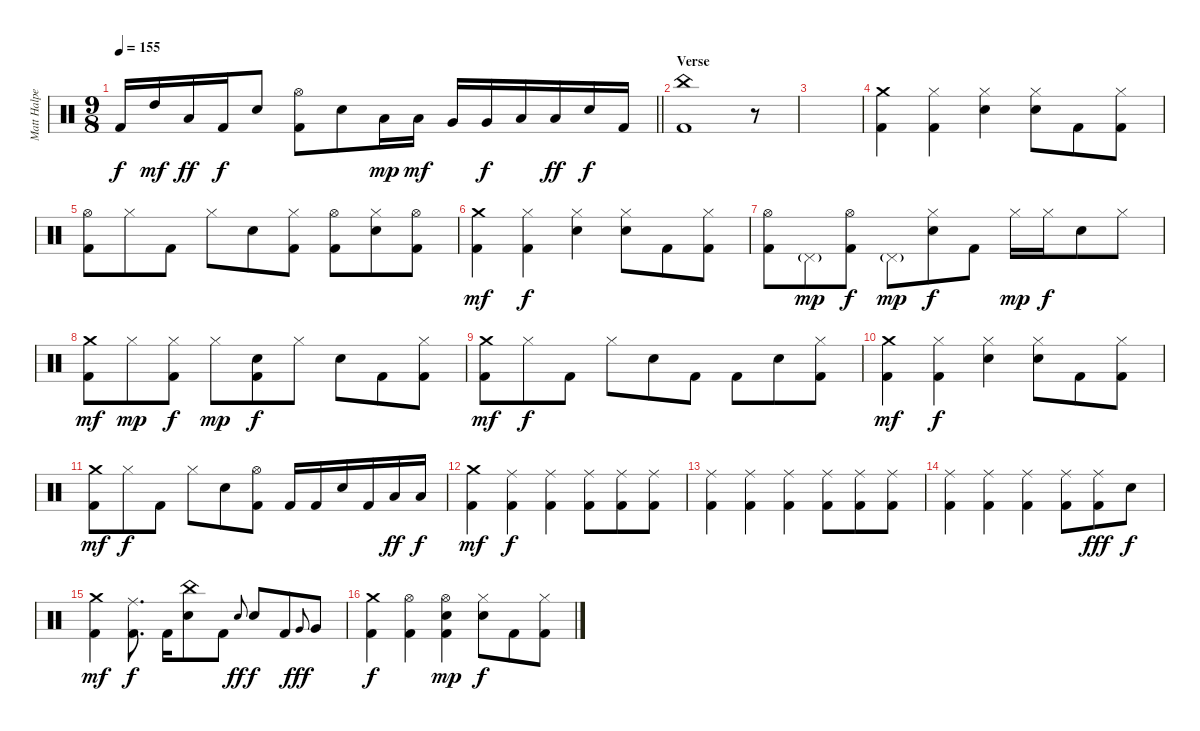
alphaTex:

\track ("Matt Halpern - Drums" "Matt Halpe") {instrument percussion}
\staff {score}
\articulation defaults
\ts (9 8)
\tempo 155
\clef neutral
\barLineRight lightlight
\ks c "Kick (hit) 2".16{dy f} "High Tom (hit)".16{dy mf} "Low Tom (hit)".16{dy ff} "Kick (hit) 2".16{dy f} "Electric Snare (hit)".8
("Hi-Hat (open)" "Kick (hit) 2").8 "Electric Snare (hit)".8 "Low Tom (hit)".16{dy mp} "Low Tom (hit)".16{dy mf} "Very Low Tom (hit)".16 "Very Low Tom (hit)".16{dy f} "Low Floor Tom (hit)".16 "Low Floor Tom (hit)".16{dy ff} "Electric Snare (hit)".16{dy f} "Kick (hit) 2".16 |
\section ("" "Verse")
("China (hit)" "Kick (hit) 2").1 r.8 |
|
("Crash medium (hit)" "Kick (hit) 2").4 ("Hi-Hat (closed)" "Kick (hit) 2").4 ("Hi-Hat (closed)" "Electric Snare (hit)").4 ("Hi-Hat (closed)" "Electric Snare (hit)").8 "Kick (hit) 2".8 ("Hi-Hat (closed)" "Kick (hit) 2").8 |
("Hi-Hat (open)" "Kick (hit) 2").8 "Hi-Hat (closed)".8 "Kick (hit) 2".8 "Hi-Hat (closed)".8 "Electric Snare (hit)".8 ("Hi-Hat (closed)" "Kick (hit) 2").8 ("Hi-Hat (open)" "Kick (hit) 2").8 ("Hi-Hat (closed)" "Electric Snare (hit)").8 ("Hi-Hat (open)" "Kick (hit) 2").8 |
("Crash medium (hit)" "Kick (hit) 2").4{dy mf} ("Hi-Hat (closed)" "Kick (hit) 2").4{dy f} ("Hi-Hat (closed)" "Electric Snare (hit)").4 ("Hi-Hat (closed)" "Electric Snare (hit)").8 "Kick (hit) 2".8 ("Hi-Hat (closed)" "Kick (hit) 2").8 |
("Hi-Hat (open)" "Kick (hit) 2").8 "Pedal Hi-Hat (hit)"{g}.8{dy mp} ("Hi-Hat (open)" "Kick (hit) 2").8{dy f} "Pedal Hi-Hat (hit)"{g}.8{dy mp} ("Hi-Hat (closed)" "Electric Snare (hit)").8{dy f} "Kick (hit) 2".8 "Hi-Hat (closed)".16{dy mp} "Hi-Hat (closed)".16{dy f} "Electric Snare (hit)".8 "Hi-Hat (closed)".8 |
("Crash medium (hit)" "Kick (hit) 2").8{dy mf} "Hi-Hat (closed)".8{dy mp} ("Hi-Hat (closed)" "Kick (hit) 2").8{dy f} "Hi-Hat (closed)".8{dy mp} ("Electric Snare (hit)" "Kick (hit) 2").8{dy f} "Hi-Hat (closed)".8 "Electric Snare (hit)".8 "Kick (hit) 2".8 ("Hi-Hat (closed)" "Kick (hit) 2").8 |
("Crash medium (hit)" "Kick (hit) 2").8{dy mf} "Hi-Hat (closed)".8{dy f} "Kick (hit) 2".8 "Hi-Hat (closed)".8 "Electric Snare (hit)".8 "Kick (hit) 2".8 "Kick (hit) 2".8 "Electric Snare (hit)".8 ("Hi-Hat (closed)" "Kick (hit) 2").8 |
("Crash medium (hit)" "Kick (hit) 2").4{dy mf} ("Hi-Hat (closed)" "Kick (hit) 2").4{dy f} ("Hi-Hat (closed)" "Electric Snare (hit)").4 ("Hi-Hat (closed)" "Electric Snare (hit)").8 "Kick (hit) 2".8 ("Hi-Hat (closed)" "Kick (hit) 2").8 |
("Crash medium (hit)" "Kick (hit) 2").8{dy mf} "Hi-Hat (closed)".8{dy f} "Kick (hit) 2".8 "Hi-Hat (closed)".8 "Electric Snare (hit)".8 ("Hi-Hat (open)" "Kick (hit) 2").8 "Kick (hit) 2".16 "Kick (hit) 2".16 "Electric Snare (hit)".16 "Kick (hit) 2".16 "Low Floor Tom (hit)".16{dy ff} "Low Floor Tom (hit)".16{dy f} |
("Crash medium (hit)" "Kick (hit) 2").4{dy mf} ("Ride (middle)" "Kick (hit) 2").4{dy f} ("Ride (middle)" "Kick (hit) 2").4 ("Ride (middle)" "Kick (hit) 2").8 ("Ride (middle)" "Kick (hit) 2").8 ("Ride (middle)" "Kick (hit) 2").8 |
("Ride (middle)" "Kick (hit) 2").4 ("Ride (middle)" "Kick (hit) 2").4 ("Ride (middle)" "Kick (hit) 2").4 ("Ride (middle)" "Kick (hit) 2").8 ("Ride (middle)" "Kick (hit) 2").8 ("Ride (middle)" "Kick (hit) 2").8 |
("Ride (middle)" "Kick (hit) 2").4 ("Ride (middle)" "Kick (hit) 2").4 ("Ride (middle)" "Kick (hit) 2").4 ("Ride (middle)" "Kick (hit) 2").8 ("Ride (middle)" "Kick (hit) 2").8{dy fff} "Electric Snare (hit)".8{dy f} |
("Crash medium (hit)" "Kick (hit) 2").4{dy mf} ("Ride (middle)" "Kick (hit) 2").8{d dy f} "Kick (hit) 2".16 ("China (hit)" "Electric Snare (hit)").8 "Kick (hit) 2".8 "Electric Snare (hit)".8{gr onbeat dy ff} "Electric Snare (hit)".8{dy f} "Kick (hit) 2".8 "Very Low Tom (hit)".8{gr onbeat dy fff} "Very Low Tom (hit)".8 |
("Crash medium (hit)" "Kick (hit) 2").4{dy f} ("Hi-Hat (open)" "Kick (hit) 2").4 ("Hi-Hat (open)" "Electric Snare (hit)" "Kick (hit) 2").4{dy mp} ("Hi-Hat (closed)" "Electric Snare (hit)").8{dy f} "Kick (hit) 2".8 ("Hi-Hat (closed)" "Kick (hit) 2").8
